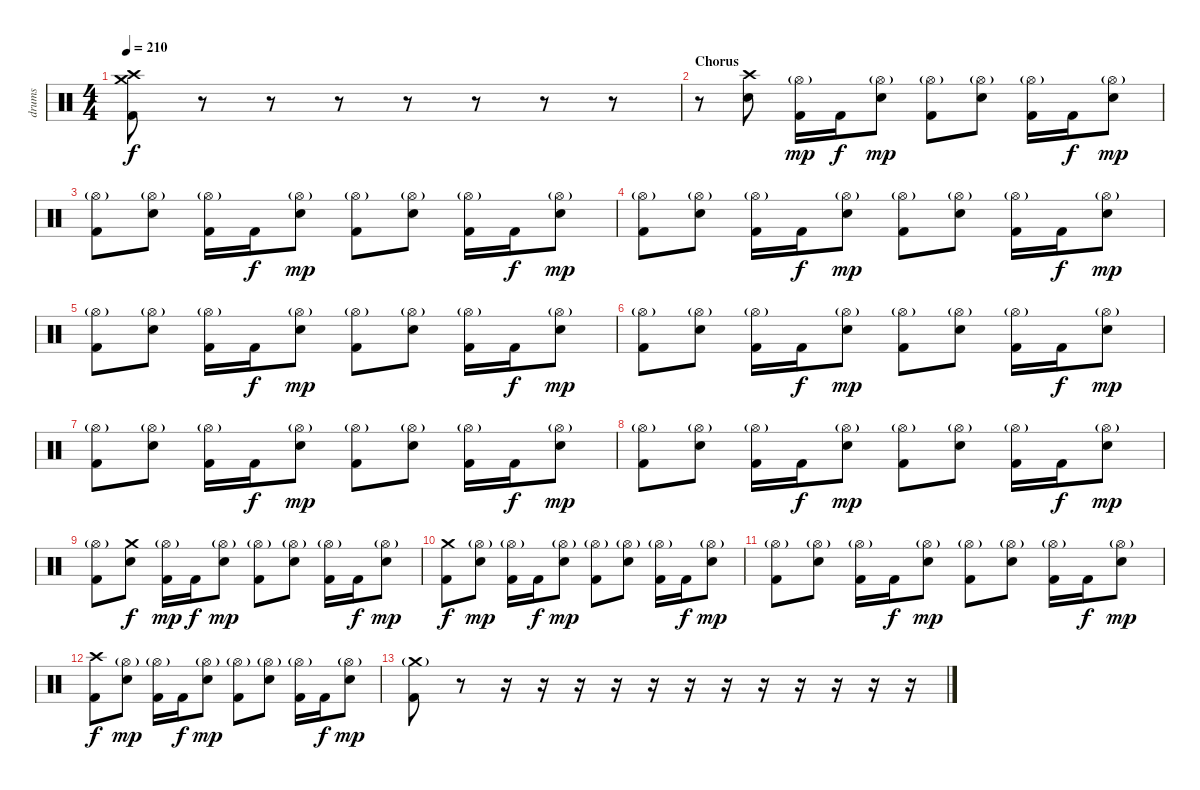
\track ("drums" "drums") {instrument percussion}
\staff {score}
\articulation defaults
\ts (4 4)
\tempo 210
\clef neutral
\ks c
("Crash medium (hit)" "Crash high (hit)" "Kick (hit) 2").8{dy f} r.8 r.8 r.8 r.8 r.8 r.8 r.8 |
\section ("" "Chorus")
r.8 ("Crash high (hit)" "Electric Snare (hit)").8 ("Hi-Hat (open)"{g} "Kick (hit) 2").16{dy mp} "Kick (hit) 2".16{dy f} ("Hi-Hat (open)"{g} "Electric Snare (hit)").8{dy mp} ("Hi-Hat (open)"{g} "Kick (hit) 2").8 ("Hi-Hat (open)"{g} "Electric Snare (hit)").8 ("Hi-Hat (open)"{g} "Kick (hit) 2").16 "Kick (hit) 2".16{dy f} ("Hi-Hat (open)"{g} "Electric Snare (hit)").8{dy mp} |
("Hi-Hat (open)"{g} "Kick (hit) 2").8 ("Hi-Hat (open)"{g} "Electric Snare (hit)").8 ("Hi-Hat (open)"{g} "Kick (hit) 2").16 "Kick (hit) 2".16{dy f} ("Hi-Hat (open)"{g} "Electric Snare (hit)").8{dy mp} ("Hi-Hat (open)"{g} "Kick (hit) 2").8 ("Hi-Hat (open)"{g} "Electric Snare (hit)").8 ("Hi-Hat (open)"{g} "Kick (hit) 2").16 "Kick (hit) 2".16{dy f} ("Hi-Hat (open)"{g} "Electric Snare (hit)").8{dy mp} |
("Hi-Hat (open)"{g} "Kick (hit) 2").8 ("Hi-Hat (open)"{g} "Electric Snare (hit)").8 ("Hi-Hat (open)"{g} "Kick (hit) 2").16 "Kick (hit) 2".16{dy f} ("Hi-Hat (open)"{g} "Electric Snare (hit)").8{dy mp} ("Hi-Hat (open)"{g} "Kick (hit) 2").8 ("Hi-Hat (open)"{g} "Electric Snare (hit)").8 ("Hi-Hat (open)"{g} "Kick (hit) 2").16 "Kick (hit) 2".16{dy f} ("Hi-Hat (open)"{g} "Electric Snare (hit)").8{dy mp} |
("Hi-Hat (open)"{g} "Kick (hit) 2").8 ("Hi-Hat (open)"{g} "Electric Snare (hit)").8 ("Hi-Hat (open)"{g} "Kick (hit) 2").16 "Kick (hit) 2".16{dy f} ("Hi-Hat (open)"{g} "Electric Snare (hit)").8{dy mp} ("Hi-Hat (open)"{g} "Kick (hit) 2").8 ("Hi-Hat (open)"{g} "Electric Snare (hit)").8 ("Hi-Hat (open)"{g} "Kick (hit) 2").16 "Kick (hit) 2".16{dy f} ("Hi-Hat (open)"{g} "Electric Snare (hit)").8{dy mp} |
("Hi-Hat (open)"{g} "Kick (hit) 2").8 ("Hi-Hat (open)"{g} "Electric Snare (hit)").8 ("Hi-Hat (open)"{g} "Kick (hit) 2").16 "Kick (hit) 2".16{dy f} ("Hi-Hat (open)"{g} "Electric Snare (hit)").8{dy mp} ("Hi-Hat (open)"{g} "Kick (hit) 2").8 ("Hi-Hat (open)"{g} "Electric Snare (hit)").8 ("Hi-Hat (open)"{g} "Kick (hit) 2").16 "Kick (hit) 2".16{dy f} ("Hi-Hat (open)"{g} "Electric Snare (hit)").8{dy mp} |
("Hi-Hat (open)"{g} "Kick (hit) 2").8 ("Hi-Hat (open)"{g} "Electric Snare (hit)").8 ("Hi-Hat (open)"{g} "Kick (hit) 2").16 "Kick (hit) 2".16{dy f} ("Hi-Hat (open)"{g} "Electric Snare (hit)").8{dy mp} ("Hi-Hat (open)"{g} "Kick (hit) 2").8 ("Hi-Hat (open)"{g} "Electric Snare (hit)").8 ("Hi-Hat (open)"{g} "Kick (hit) 2").16 "Kick (hit) 2".16{dy f} ("Hi-Hat (open)"{g} "Electric Snare (hit)").8{dy mp} |
("Hi-Hat (open)"{g} "Kick (hit) 2").8 ("Hi-Hat (open)"{g} "Electric Snare (hit)").8 ("Hi-Hat (open)"{g} "Kick (hit) 2").16 "Kick (hit) 2".16{dy f} ("Hi-Hat (open)"{g} "Electric Snare (hit)").8{dy mp} ("Hi-Hat (open)"{g} "Kick (hit) 2").8 ("Hi-Hat (open)"{g} "Electric Snare (hit)").8 ("Hi-Hat (open)"{g} "Kick (hit) 2").16 "Kick (hit) 2".16{dy f} ("Hi-Hat (open)"{g} "Electric Snare (hit)").8{dy mp} |
("Hi-Hat (open)"{g} "Kick (hit) 2").8 ("Crash medium (hit)" "Electric Snare (hit)").8{dy f} ("Hi-Hat (open)"{g} "Kick (hit) 2").16{dy mp} "Kick (hit) 2".16{dy f} ("Hi-Hat (open)"{g} "Electric Snare (hit)").8{dy mp} ("Hi-Hat (open)"{g} "Kick (hit) 2").8 ("Hi-Hat (open)"{g} "Electric Snare (hit)").8 ("Hi-Hat (open)"{g} "Kick (hit) 2").16 "Kick (hit) 2".16{dy f} ("Hi-Hat (open)"{g} "Electric Snare (hit)").8{dy mp} |
("Crash medium (hit)" "Kick (hit) 2").8{dy f} ("Hi-Hat (open)"{g} "Electric Snare (hit)").8{dy mp} ("Hi-Hat (open)"{g} "Kick (hit) 2").16 "Kick (hit) 2".16{dy f} ("Hi-Hat (open)"{g} "Electric Snare (hit)").8{dy mp} ("Hi-Hat (open)"{g} "Kick (hit) 2").8 ("Hi-Hat (open)"{g} "Electric Snare (hit)").8 ("Hi-Hat (open)"{g} "Kick (hit) 2").16 "Kick (hit) 2".16{dy f} ("Hi-Hat (open)"{g} "Electric Snare (hit)").8{dy mp} |
("Hi-Hat (open)"{g} "Kick (hit) 2").8 ("Hi-Hat (open)"{g} "Electric Snare (hit)").8 ("Hi-Hat (open)"{g} "Kick (hit) 2").16 "Kick (hit) 2".16{dy f} ("Hi-Hat (open)"{g} "Electric Snare (hit)").8{dy mp} ("Hi-Hat (open)"{g} "Kick (hit) 2").8 ("Hi-Hat (open)"{g} "Electric Snare (hit)").8 ("Hi-Hat (open)"{g} "Kick (hit) 2").16 "Kick (hit) 2".16{dy f} ("Hi-Hat (open)"{g} "Electric Snare (hit)").8{dy mp} |
("Crash high (hit)" "Kick (hit) 2").8{dy f} ("Hi-Hat (open)"{g} "Electric Snare (hit)").8{dy mp} ("Hi-Hat (open)"{g} "Kick (hit) 2").16 "Kick (hit) 2".16{dy f} ("Hi-Hat (open)"{g} "Electric Snare (hit)").8{dy mp} ("Hi-Hat (open)"{g} "Kick (hit) 2").8 ("Hi-Hat (open)"{g} "Electric Snare (hit)").8 ("Hi-Hat (open)"{g} "Kick (hit) 2").16 "Kick (hit) 2".16{dy f} ("Hi-Hat (open)"{g} "Electric Snare (hit)").8{dy mp} |
("Crash medium (hit)"{g} "Kick (hit) 2").8 r.8 r.16 r.16 r.16 r.16 r.16 r.16 r.16 r.16 r.16 r.16 r.16 r.16
